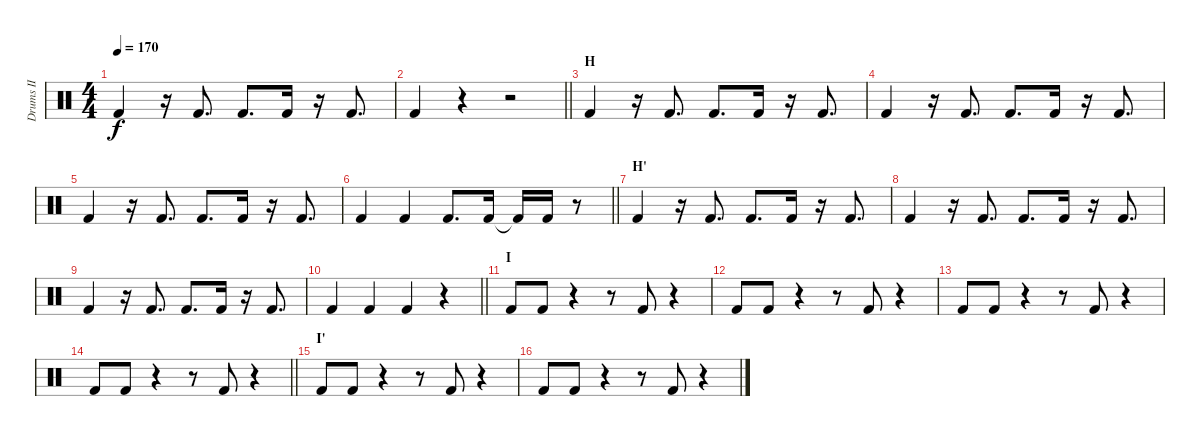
\track ("Drums II" "Drums II") {instrument percussion}
\staff {score}
\articulation defaults
\ts (4 4)
\tempo 170
\clef neutral
\ks c "Kick (hit) 2".4{dy f}
r.16 "Kick (hit) 2".8{d} "Kick (hit) 2".8{d} "Kick (hit) 2".16 r.16 "Kick (hit) 2".8{d} |
\barLineRight lightlight "Kick (hit) 2".4
r.4 r.2 |
\section ("" "H")
"Kick (hit) 2".4 r.16 "Kick (hit) 2".8{d} "Kick (hit) 2".8{d} "Kick (hit) 2".16 r.16 "Kick (hit) 2".8{d} |
"Kick (hit) 2".4 r.16 "Kick (hit) 2".8{d} "Kick (hit) 2".8{d} "Kick (hit) 2".16 r.16 "Kick (hit) 2".8{d} |
"Kick (hit) 2".4 r.16 "Kick (hit) 2".8{d} "Kick (hit) 2".8{d} "Kick (hit) 2".16 r.16 "Kick (hit) 2".8{d} |
\barLineRight lightlight "Kick (hit) 2".4 "Kick (hit) 2".4 "Kick (hit) 2".8{d} "Kick (hit) 2".16 "Kick (hit) 2"{t}.16 "Kick (hit) 2".16
r.8 |
\section ("" "H'")
"Kick (hit) 2".4 r.16 "Kick (hit) 2".8{d} "Kick (hit) 2".8{d} "Kick (hit) 2".16 r.16 "Kick (hit) 2".8{d} |
"Kick (hit) 2".4 r.16 "Kick (hit) 2".8{d} "Kick (hit) 2".8{d} "Kick (hit) 2".16 r.16 "Kick (hit) 2".8{d} |
"Kick (hit) 2".4 r.16 "Kick (hit) 2".8{d} "Kick (hit) 2".8{d} "Kick (hit) 2".16 r.16 "Kick (hit) 2".8{d} |
\barLineRight lightlight "Kick (hit) 2".4 "Kick (hit) 2".4 "Kick (hit) 2".4
r.4 |
\section ("" "I")
"Kick (hit) 2".8 "Kick (hit) 2".8 r.4 r.8 "Kick (hit) 2".8 r.4 |
"Kick (hit) 2".8 "Kick (hit) 2".8 r.4 r.8 "Kick (hit) 2".8 r.4 |
"Kick (hit) 2".8 "Kick (hit) 2".8 r.4 r.8 "Kick (hit) 2".8 r.4 |
\barLineRight lightlight "Kick (hit) 2".8 "Kick (hit) 2".8
r.4 r.8 "Kick (hit) 2".8 r.4 |
\section ("" "I'")
"Kick (hit) 2".8 "Kick (hit) 2".8 r.4 r.8 "Kick (hit) 2".8 r.4 |
"Kick (hit) 2".8 "Kick (hit) 2".8 r.4 r.8 "Kick (hit) 2".8 r.4
